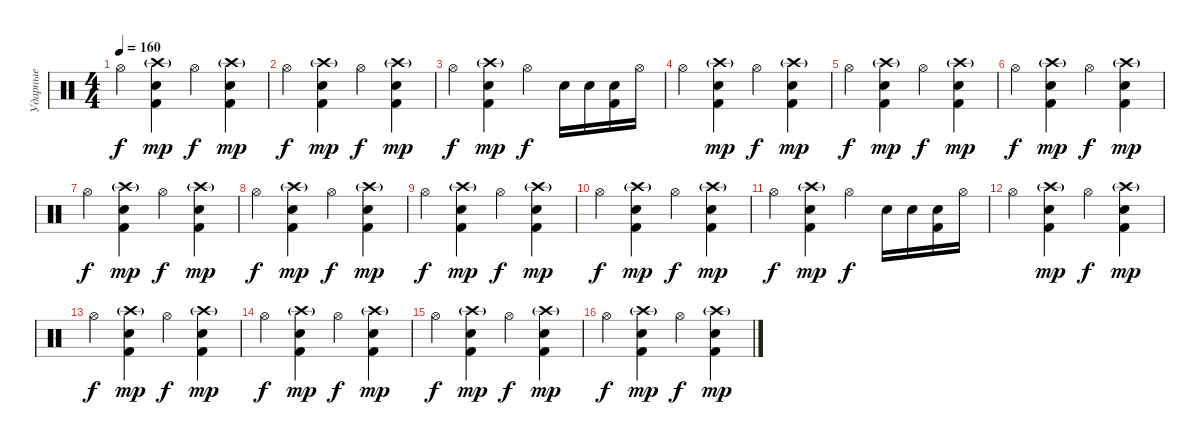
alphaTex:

\track ("Ударные" "Ударные") {instrument percussion}
\staff {score}
\articulation defaults
\ts (4 4)
\tempo 160
\clef neutral
\ks c "Hi-Hat (open)".4{dy f}
("Crash high (hit)"{g} "Kick (hit) 2" "Snare (hit) 2").4{dy mp} "Hi-Hat (open)".4{dy f} ("Crash high (hit)"{g} "Kick (hit) 2" "Snare (hit) 2").4{dy mp} |
"Hi-Hat (open)".4{dy f} ("Crash high (hit)"{g} "Kick (hit) 2" "Snare (hit) 2").4{dy mp} "Hi-Hat (open)".4{dy f} ("Crash high (hit)"{g} "Kick (hit) 2" "Snare (hit) 2").4{dy mp} |
"Hi-Hat (open)".4{dy f} ("Crash high (hit)"{g} "Kick (hit) 2" "Snare (hit) 2").4{dy mp} "Hi-Hat (open)".4{dy f} "Electric Snare (hit)".16 "Snare (hit) 2".16 ("Electric Snare (hit)" "Kick (hit) 2").16 "Hi-Hat (open)".16 |
"Hi-Hat (open)".4 ("Crash high (hit)"{g} "Kick (hit) 2" "Snare (hit) 2").4{dy mp} "Hi-Hat (open)".4{dy f} ("Crash high (hit)"{g} "Kick (hit) 2" "Snare (hit) 2").4{dy mp} |
"Hi-Hat (open)".4{dy f} ("Crash high (hit)"{g} "Kick (hit) 2" "Snare (hit) 2").4{dy mp} "Hi-Hat (open)".4{dy f} ("Crash high (hit)"{g} "Kick (hit) 2" "Snare (hit) 2").4{dy mp} |
"Hi-Hat (open)".4{dy f} ("Crash high (hit)"{g} "Kick (hit) 2" "Snare (hit) 2").4{dy mp} "Hi-Hat (open)".4{dy f} ("Crash high (hit)"{g} "Kick (hit) 2" "Snare (hit) 2").4{dy mp} |
"Hi-Hat (open)".4{dy f} ("Crash high (hit)"{g} "Kick (hit) 2" "Snare (hit) 2").4{dy mp} "Hi-Hat (open)".4{dy f} ("Crash high (hit)"{g} "Kick (hit) 2" "Snare (hit) 2").4{dy mp} |
"Hi-Hat (open)".4{dy f} ("Crash high (hit)"{g} "Kick (hit) 2" "Snare (hit) 2").4{dy mp} "Hi-Hat (open)".4{dy f} ("Crash high (hit)"{g} "Kick (hit) 2" "Snare (hit) 2").4{dy mp} |
"Hi-Hat (open)".4{dy f} ("Crash high (hit)"{g} "Kick (hit) 2" "Snare (hit) 2").4{dy mp} "Hi-Hat (open)".4{dy f} ("Crash high (hit)"{g} "Kick (hit) 2" "Snare (hit) 2").4{dy mp} |
"Hi-Hat (open)".4{dy f} ("Crash high (hit)"{g} "Kick (hit) 2" "Snare (hit) 2").4{dy mp} "Hi-Hat (open)".4{dy f} ("Crash high (hit)"{g} "Kick (hit) 2" "Snare (hit) 2").4{dy mp} |
"Hi-Hat (open)".4{dy f} ("Crash high (hit)"{g} "Kick (hit) 2" "Snare (hit) 2").4{dy mp} "Hi-Hat (open)".4{dy f} "Electric Snare (hit)".16 "Snare (hit) 2".16 ("Electric Snare (hit)" "Kick (hit) 2").16 "Hi-Hat (open)".16 |
"Hi-Hat (open)".4 ("Crash high (hit)"{g} "Kick (hit) 2" "Snare (hit) 2").4{dy mp} "Hi-Hat (open)".4{dy f} ("Crash high (hit)"{g} "Kick (hit) 2" "Snare (hit) 2").4{dy mp} |
"Hi-Hat (open)".4{dy f} ("Crash high (hit)"{g} "Kick (hit) 2" "Snare (hit) 2").4{dy mp} "Hi-Hat (open)".4{dy f} ("Crash high (hit)"{g} "Kick (hit) 2" "Snare (hit) 2").4{dy mp} |
"Hi-Hat (open)".4{dy f} ("Crash high (hit)"{g} "Kick (hit) 2" "Snare (hit) 2").4{dy mp} "Hi-Hat (open)".4{dy f} ("Crash high (hit)"{g} "Kick (hit) 2" "Snare (hit) 2").4{dy mp} |
"Hi-Hat (open)".4{dy f} ("Crash high (hit)"{g} "Kick (hit) 2" "Snare (hit) 2").4{dy mp} "Hi-Hat (open)".4{dy f} ("Crash high (hit)"{g} "Kick (hit) 2" "Snare (hit) 2").4{dy mp} |
"Hi-Hat (open)".4{dy f} ("Crash high (hit)"{g} "Kick (hit) 2" "Snare (hit) 2").4{dy mp} "Hi-Hat (open)".4{dy f} ("Crash high (hit)"{g} "Kick (hit) 2" "Snare (hit) 2").4{dy mp}
